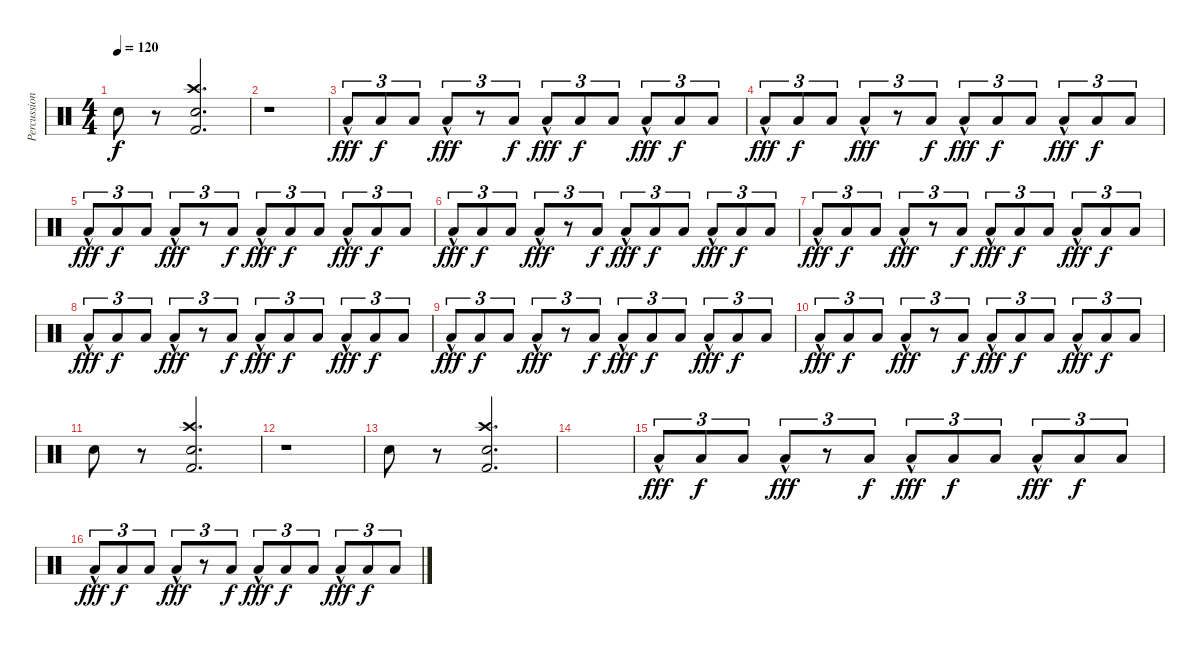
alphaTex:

\track ("Percussion" "Percussion") {instrument percussion}
\staff {score}
\articulation defaults
\ts (4 4)
\tempo 120
\clef neutral
\ks c "Snare (hit) 2".8{dy f}
r.8 ("Crash high (hit)" "Snare (hit) 2" "Kick (hit) 2").2{d} |
r.1 |
"Low Floor Tom (hit)"{hac}.8{tu (3 2) dy fff} "Low Floor Tom (hit)".8{tu (3 2) dy f} "Low Floor Tom (hit)".8{tu (3 2)} "Low Floor Tom (hit)"{hac}.8{tu (3 2) dy fff} r.8{tu (3 2)} "Low Floor Tom (hit)".8{tu (3 2) dy f} "Low Floor Tom (hit)"{hac}.8{tu (3 2) dy fff} "Low Floor Tom (hit)".8{tu (3 2) dy f} "Low Floor Tom (hit)".8{tu (3 2)} "Low Floor Tom (hit)"{hac}.8{tu (3 2) dy fff} "Low Floor Tom (hit)".8{tu (3 2) dy f} "Low Floor Tom (hit)".8{tu (3 2)} |
"Low Floor Tom (hit)"{hac}.8{tu (3 2) dy fff} "Low Floor Tom (hit)".8{tu (3 2) dy f} "Low Floor Tom (hit)".8{tu (3 2)} "Low Floor Tom (hit)"{hac}.8{tu (3 2) dy fff} r.8{tu (3 2)} "Low Floor Tom (hit)".8{tu (3 2) dy f} "Low Floor Tom (hit)"{hac}.8{tu (3 2) dy fff} "Low Floor Tom (hit)".8{tu (3 2) dy f} "Low Floor Tom (hit)".8{tu (3 2)} "Low Floor Tom (hit)"{hac}.8{tu (3 2) dy fff} "Low Floor Tom (hit)".8{tu (3 2) dy f} "Low Floor Tom (hit)".8{tu (3 2)} |
"Low Floor Tom (hit)"{hac}.8{tu (3 2) dy fff} "Low Floor Tom (hit)".8{tu (3 2) dy f} "Low Floor Tom (hit)".8{tu (3 2)} "Low Floor Tom (hit)"{hac}.8{tu (3 2) dy fff} r.8{tu (3 2)} "Low Floor Tom (hit)".8{tu (3 2) dy f} "Low Floor Tom (hit)"{hac}.8{tu (3 2) dy fff} "Low Floor Tom (hit)".8{tu (3 2) dy f} "Low Floor Tom (hit)".8{tu (3 2)} "Low Floor Tom (hit)"{hac}.8{tu (3 2) dy fff} "Low Floor Tom (hit)".8{tu (3 2) dy f} "Low Floor Tom (hit)".8{tu (3 2)} |
"Low Floor Tom (hit)"{hac}.8{tu (3 2) dy fff} "Low Floor Tom (hit)".8{tu (3 2) dy f} "Low Floor Tom (hit)".8{tu (3 2)} "Low Floor Tom (hit)"{hac}.8{tu (3 2) dy fff} r.8{tu (3 2)} "Low Floor Tom (hit)".8{tu (3 2) dy f} "Low Floor Tom (hit)"{hac}.8{tu (3 2) dy fff} "Low Floor Tom (hit)".8{tu (3 2) dy f} "Low Floor Tom (hit)".8{tu (3 2)} "Low Floor Tom (hit)"{hac}.8{tu (3 2) dy fff} "Low Floor Tom (hit)".8{tu (3 2) dy f} "Low Floor Tom (hit)".8{tu (3 2)} |
"Low Floor Tom (hit)"{hac}.8{tu (3 2) dy fff} "Low Floor Tom (hit)".8{tu (3 2) dy f} "Low Floor Tom (hit)".8{tu (3 2)} "Low Floor Tom (hit)"{hac}.8{tu (3 2) dy fff} r.8{tu (3 2)} "Low Floor Tom (hit)".8{tu (3 2) dy f} "Low Floor Tom (hit)"{hac}.8{tu (3 2) dy fff} "Low Floor Tom (hit)".8{tu (3 2) dy f} "Low Floor Tom (hit)".8{tu (3 2)} "Low Floor Tom (hit)"{hac}.8{tu (3 2) dy fff} "Low Floor Tom (hit)".8{tu (3 2) dy f} "Low Floor Tom (hit)".8{tu (3 2)} |
"Low Floor Tom (hit)"{hac}.8{tu (3 2) dy fff} "Low Floor Tom (hit)".8{tu (3 2) dy f} "Low Floor Tom (hit)".8{tu (3 2)} "Low Floor Tom (hit)"{hac}.8{tu (3 2) dy fff} r.8{tu (3 2)} "Low Floor Tom (hit)".8{tu (3 2) dy f} "Low Floor Tom (hit)"{hac}.8{tu (3 2) dy fff} "Low Floor Tom (hit)".8{tu (3 2) dy f} "Low Floor Tom (hit)".8{tu (3 2)} "Low Floor Tom (hit)"{hac}.8{tu (3 2) dy fff} "Low Floor Tom (hit)".8{tu (3 2) dy f} "Low Floor Tom (hit)".8{tu (3 2)} |
"Low Floor Tom (hit)"{hac}.8{tu (3 2) dy fff} "Low Floor Tom (hit)".8{tu (3 2) dy f} "Low Floor Tom (hit)".8{tu (3 2)} "Low Floor Tom (hit)"{hac}.8{tu (3 2) dy fff} r.8{tu (3 2)} "Low Floor Tom (hit)".8{tu (3 2) dy f} "Low Floor Tom (hit)"{hac}.8{tu (3 2) dy fff} "Low Floor Tom (hit)".8{tu (3 2) dy f} "Low Floor Tom (hit)".8{tu (3 2)} "Low Floor Tom (hit)"{hac}.8{tu (3 2) dy fff} "Low Floor Tom (hit)".8{tu (3 2) dy f} "Low Floor Tom (hit)".8{tu (3 2)} |
"Low Floor Tom (hit)"{hac}.8{tu (3 2) dy fff} "Low Floor Tom (hit)".8{tu (3 2) dy f} "Low Floor Tom (hit)".8{tu (3 2)} "Low Floor Tom (hit)"{hac}.8{tu (3 2) dy fff} r.8{tu (3 2)} "Low Floor Tom (hit)".8{tu (3 2) dy f} "Low Floor Tom (hit)"{hac}.8{tu (3 2) dy fff} "Low Floor Tom (hit)".8{tu (3 2) dy f} "Low Floor Tom (hit)".8{tu (3 2)} "Low Floor Tom (hit)"{hac}.8{tu (3 2) dy fff} "Low Floor Tom (hit)".8{tu (3 2) dy f} "Low Floor Tom (hit)".8{tu (3 2)} |
"Snare (hit) 2".8 r.8 ("Crash high (hit)" "Snare (hit) 2" "Kick (hit) 2").2{d} |
r.1 |
"Snare (hit) 2".8 r.8 ("Crash high (hit)" "Snare (hit) 2" "Kick (hit) 2").2{d} |
|
"Low Floor Tom (hit)"{hac}.8{tu (3 2) dy fff} "Low Floor Tom (hit)".8{tu (3 2) dy f} "Low Floor Tom (hit)".8{tu (3 2)} "Low Floor Tom (hit)"{hac}.8{tu (3 2) dy fff} r.8{tu (3 2)} "Low Floor Tom (hit)".8{tu (3 2) dy f} "Low Floor Tom (hit)"{hac}.8{tu (3 2) dy fff} "Low Floor Tom (hit)".8{tu (3 2) dy f} "Low Floor Tom (hit)".8{tu (3 2)} "Low Floor Tom (hit)"{hac}.8{tu (3 2) dy fff} "Low Floor Tom (hit)".8{tu (3 2) dy f} "Low Floor Tom (hit)".8{tu (3 2)} |
"Low Floor Tom (hit)"{hac}.8{tu (3 2) dy fff} "Low Floor Tom (hit)".8{tu (3 2) dy f} "Low Floor Tom (hit)".8{tu (3 2)} "Low Floor Tom (hit)"{hac}.8{tu (3 2) dy fff} r.8{tu (3 2)} "Low Floor Tom (hit)".8{tu (3 2) dy f} "Low Floor Tom (hit)"{hac}.8{tu (3 2) dy fff} "Low Floor Tom (hit)".8{tu (3 2) dy f} "Low Floor Tom (hit)".8{tu (3 2)} "Low Floor Tom (hit)"{hac}.8{tu (3 2) dy fff} "Low Floor Tom (hit)".8{tu (3 2) dy f} "Low Floor Tom (hit)".8{tu (3 2)}
